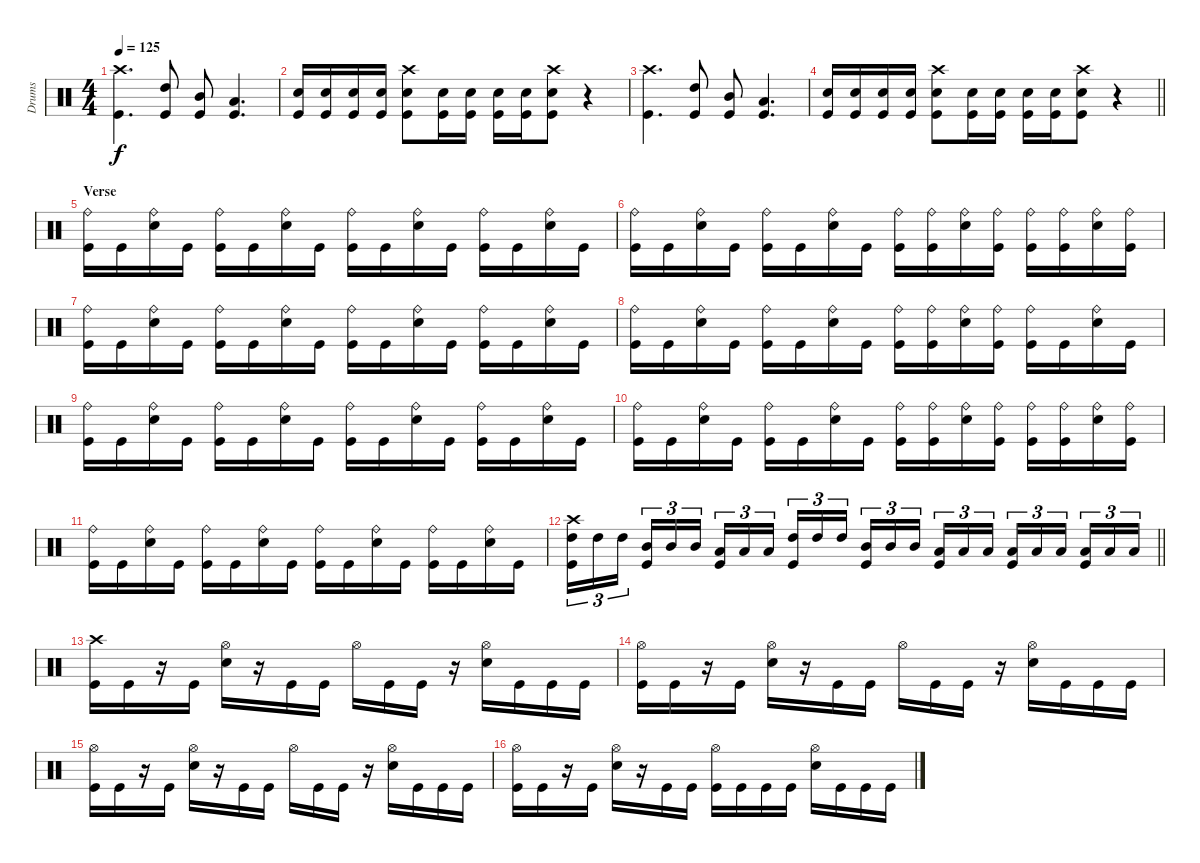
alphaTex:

\track ("Drums " "Drums ") {instrument percussion}
\staff {score}
\articulation defaults
\ts (4 4)
\section ("" "")
\tempo 125
\clef neutral
\ks c
("Crash high (hit)" "Kick (hit)").4{d dy f} ("High Tom (hit)" "Kick (hit)").8 ("Mid Tom (hit)" "Kick (hit)").8 ("Low Tom (hit)" "Kick (hit)").4{d} |
("Electric Snare (hit)" "Kick (hit)").16 ("Electric Snare (hit)" "Kick (hit)").16 ("Electric Snare (hit)" "Kick (hit)").16 ("Electric Snare (hit)" "Kick (hit)").16 ("Crash high (hit)" "Electric Snare (hit)" "Kick (hit)").8 ("Electric Snare (hit)" "Kick (hit)").16 ("Snare (hit)" "Kick (hit)").16 ("Electric Snare (hit)" "Kick (hit)").16 ("Electric Snare (hit)" "Kick (hit)").16 ("Crash high (hit)" "Electric Snare (hit)" "Kick (hit)").8 r.4 |
("Crash high (hit)" "Kick (hit)").4{d} ("High Tom (hit)" "Kick (hit)").8 ("Mid Tom (hit)" "Kick (hit)").8 ("Low Tom (hit)" "Kick (hit)").4{d} |
\barLineRight lightlight
("Electric Snare (hit)" "Kick (hit)").16 ("Electric Snare (hit)" "Kick (hit)").16 ("Electric Snare (hit)" "Kick (hit)").16 ("Electric Snare (hit)" "Kick (hit)").16 ("Crash high (hit)" "Electric Snare (hit)" "Kick (hit)").8 ("Electric Snare (hit)" "Kick (hit)").16 ("Snare (hit)" "Kick (hit)").16 ("Electric Snare (hit)" "Kick (hit)").16 ("Electric Snare (hit)" "Kick (hit)").16 ("Crash high (hit)" "Electric Snare (hit)" "Kick (hit)").8 r.4 |
\section ("" "Verse ")
("Ride (bell)" "Kick (hit)").16 "Kick (hit)".16 ("Ride (bell)" "Electric Snare (hit)").16 "Kick (hit)".16 ("Ride (bell)" "Kick (hit)").16 "Kick (hit)".16 ("Ride (bell)" "Electric Snare (hit)").16 "Kick (hit)".16 ("Ride (bell)" "Kick (hit)").16 "Kick (hit)".16 ("Ride (bell)" "Electric Snare (hit)").16 "Kick (hit)".16 ("Ride (bell)" "Kick (hit)").16 "Kick (hit)".16 ("Ride (bell)" "Electric Snare (hit)").16 "Kick (hit)".16 |
("Ride (bell)" "Kick (hit)").16 "Kick (hit)".16 ("Ride (bell)" "Electric Snare (hit)").16 "Kick (hit)".16 ("Ride (bell)" "Kick (hit)").16 "Kick (hit)".16 ("Ride (bell)" "Electric Snare (hit)").16 "Kick (hit)".16 ("Ride (bell)" "Kick (hit)").16 ("Ride (bell)" "Kick (hit)").16 ("Ride (bell)" "Electric Snare (hit)").16 ("Ride (bell)" "Kick (hit)").16 ("Ride (bell)" "Kick (hit)").16 ("Ride (bell)" "Kick (hit)").16 ("Ride (bell)" "Electric Snare (hit)").16 ("Ride (bell)" "Kick (hit)").16 |
("Ride (bell)" "Kick (hit)").16 "Kick (hit)".16 ("Ride (bell)" "Electric Snare (hit)").16 "Kick (hit)".16 ("Ride (bell)" "Kick (hit)").16 "Kick (hit)".16 ("Ride (bell)" "Electric Snare (hit)").16 "Kick (hit)".16 ("Ride (bell)" "Kick (hit)").16 "Kick (hit)".16 ("Ride (bell)" "Electric Snare (hit)").16 "Kick (hit)".16 ("Ride (bell)" "Kick (hit)").16 "Kick (hit)".16 ("Ride (bell)" "Electric Snare (hit)").16 "Kick (hit)".16 |
("Ride (bell)" "Kick (hit)").16 "Kick (hit)".16 ("Ride (bell)" "Electric Snare (hit)").16 "Kick (hit)".16 ("Ride (bell)" "Kick (hit)").16 "Kick (hit)".16 ("Ride (bell)" "Electric Snare (hit)").16 "Kick (hit)".16 ("Ride (bell)" "Kick (hit)").16 ("Ride (bell)" "Kick (hit)").16 ("Ride (bell)" "Electric Snare (hit)").16 ("Ride (bell)" "Kick (hit)").16 ("Ride (bell)" "Kick (hit)").16 "Kick (hit)".16 ("Ride (bell)" "Electric Snare (hit)").16 "Kick (hit)".16 |
("Ride (bell)" "Kick (hit)").16 "Kick (hit)".16 ("Ride (bell)" "Electric Snare (hit)").16 "Kick (hit)".16 ("Ride (bell)" "Kick (hit)").16 "Kick (hit)".16 ("Ride (bell)" "Electric Snare (hit)").16 "Kick (hit)".16 ("Ride (bell)" "Kick (hit)").16 "Kick (hit)".16 ("Ride (bell)" "Electric Snare (hit)").16 "Kick (hit)".16 ("Ride (bell)" "Kick (hit)").16 "Kick (hit)".16 ("Ride (bell)" "Electric Snare (hit)").16 "Kick (hit)".16 |
("Ride (bell)" "Kick (hit)").16 "Kick (hit)".16 ("Ride (bell)" "Electric Snare (hit)").16 "Kick (hit)".16 ("Ride (bell)" "Kick (hit)").16 "Kick (hit)".16 ("Ride (bell)" "Electric Snare (hit)").16 "Kick (hit)".16 ("Ride (bell)" "Kick (hit)").16 ("Ride (bell)" "Kick (hit)").16 ("Ride (bell)" "Electric Snare (hit)").16 ("Ride (bell)" "Kick (hit)").16 ("Ride (bell)" "Kick (hit)").16 ("Ride (bell)" "Kick (hit)").16 ("Ride (bell)" "Electric Snare (hit)").16 ("Ride (bell)" "Kick (hit)").16 |
("Ride (bell)" "Kick (hit)").16 "Kick (hit)".16 ("Ride (bell)" "Electric Snare (hit)").16 "Kick (hit)".16 ("Ride (bell)" "Kick (hit)").16 "Kick (hit)".16 ("Ride (bell)" "Electric Snare (hit)").16 "Kick (hit)".16 ("Ride (bell)" "Kick (hit)").16 "Kick (hit)".16 ("Ride (bell)" "Electric Snare (hit)").16 "Kick (hit)".16 ("Ride (bell)" "Kick (hit)").16 "Kick (hit)".16 ("Ride (bell)" "Electric Snare (hit)").16 "Kick (hit)".16 |
\barLineRight lightlight
("Crash high (hit)" "High Tom (hit)" "Kick (hit)").16{tu (3 2)} "High Tom (hit)".16{tu (3 2)} "High Tom (hit)".16{tu (3 2) beam splitsecondary} ("Mid Tom (hit)" "Kick (hit)").16{tu (3 2)} "Mid Tom (hit)".16{tu (3 2)} "Mid Tom (hit)".16{tu (3 2)} ("Low Tom (hit)" "Kick (hit)").16{tu (3 2)} "Low Tom (hit)".16{tu (3 2)} "Low Tom (hit)".16{tu (3 2) beam splitsecondary} ("High Tom (hit)" "Kick (hit)").16{tu (3 2)} "High Tom (hit)".16{tu (3 2)} "High Tom (hit)".16{tu (3 2)} ("Mid Tom (hit)" "Kick (hit)").16{tu (3 2)} "Mid Tom (hit)".16{tu (3 2)} "Mid Tom (hit)".16{tu (3 2) beam splitsecondary} ("Low Tom (hit)" "Kick (hit)").16{tu (3 2)} "Low Tom (hit)".16{tu (3 2)} "Low Tom (hit)".16{tu (3 2)} ("Low Floor Tom (hit)" "Kick (hit)").16{tu (3 2)} "Low Floor Tom (hit)".16{tu (3 2)} "Low Floor Tom (hit)".16{tu (3 2) beam splitsecondary} ("Low Floor Tom (hit)" "Kick (hit)").16{tu (3 2)} "Low Floor Tom (hit)".16{tu (3 2)} "Low Floor Tom (hit)".16{tu (3 2)} |
\section ("" "")
("Crash high (hit)" "Kick (hit)").16 "Kick (hit)".16 r.16 "Kick (hit)".16 ("Hi-Hat (open)" "Electric Snare (hit)").16 r.16 "Kick (hit)".16 "Kick (hit)".16 "Hi-Hat (open)".16 "Kick (hit)".16 "Kick (hit)".16 r.16 ("Hi-Hat (open)" "Electric Snare (hit)").16 "Kick (hit)".16 "Kick (hit)".16 "Kick (hit)".16 |
("Hi-Hat (open)" "Kick (hit)").16 "Kick (hit)".16 r.16 "Kick (hit)".16 ("Hi-Hat (open)" "Electric Snare (hit)").16 r.16 "Kick (hit)".16 "Kick (hit)".16 "Hi-Hat (open)".16 "Kick (hit)".16 "Kick (hit)".16 r.16 ("Hi-Hat (open)" "Electric Snare (hit)").16 "Kick (hit)".16 "Kick (hit)".16 "Kick (hit)".16 |
("Hi-Hat (open)" "Kick (hit)").16 "Kick (hit)".16 r.16 "Kick (hit)".16 ("Hi-Hat (open)" "Electric Snare (hit)").16 r.16 "Kick (hit)".16 "Kick (hit)".16 "Hi-Hat (open)".16 "Kick (hit)".16 "Kick (hit)".16 r.16 ("Hi-Hat (open)" "Electric Snare (hit)").16 "Kick (hit)".16 "Kick (hit)".16 "Kick (hit)".16 |
("Hi-Hat (open)" "Kick (hit)").16 "Kick (hit)".16 r.16 "Kick (hit)".16 ("Hi-Hat (open)" "Electric Snare (hit)").16 r.16 "Kick (hit)".16 "Kick (hit)".16 ("Hi-Hat (open)" "Kick (hit)").16 "Kick (hit)".16 "Kick (hit)".16 "Kick (hit)".16 ("Hi-Hat (open)" "Electric Snare (hit)").16 "Kick (hit)".16 "Kick (hit)".16 "Kick (hit)".16
